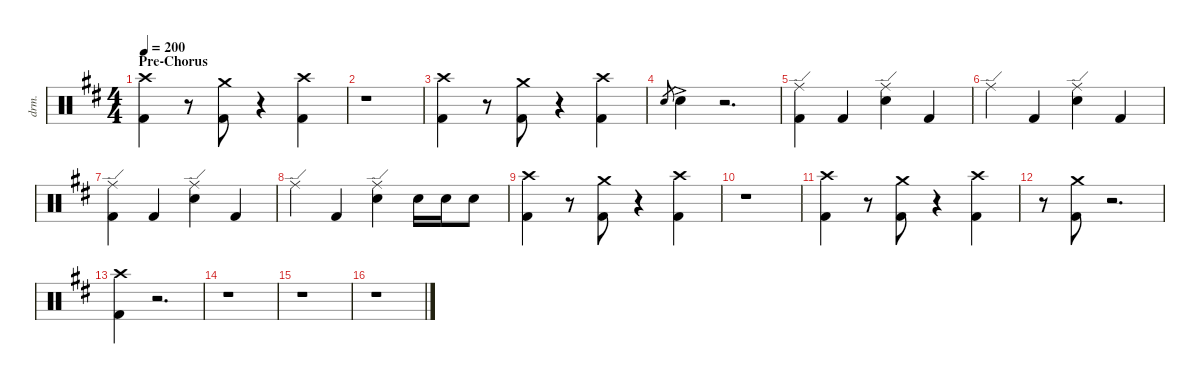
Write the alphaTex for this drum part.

\defaultSystemsLayout 4
\hideDynamics
\bracketExtendMode nobrackets
\otherSystemsTrackNameOrientation horizontal
\track ("Drums" "drm.") {instrument percussion}
\staff {score}
\articulation defaults
\ts (4 4)
\section ("" "Pre-Chorus")
\tempo 200
\clef neutral
\ks d
("Kick (hit) 2"{acc forcenatural} "Crash high (hit)"{acc #}).4{dy ff beam Down} r.8{beam Down} ("Kick (hit) 2"{acc forcenatural} "Crash medium (hit)"{acc forcenatural}).8{beam Down} r.4{beam Down} ("Kick (hit) 2"{acc forcenatural} "Crash high (hit)"{acc #}).4{beam Down} |
r.1{beam Down} |
("Kick (hit) 2"{acc forcenatural} "Crash high (hit)"{acc #}).4{beam Down} r.8{beam Down} ("Kick (hit) 2"{acc forcenatural} "Crash medium (hit)"{acc forcenatural}).8{beam Down} r.4{beam Down} ("Kick (hit) 2"{acc forcenatural} "Crash high (hit)"{acc #}).4{beam Down} |
"Snare (hit) 2"{acc forcenatural}.8{gr dy mf} "Snare (hit) 2"{ac acc forcenatural}.4{dy ff beam Down} r.2{d beam Down} |
("Kick (hit) 2"{acc forcenatural} "Ride (edge)"{acc #}).4{beam Down} "Kick (hit) 2"{acc forcenatural}.4{beam Up} ("Snare (hit) 2"{acc forcenatural} "Ride (edge)"{acc #}).4{beam Down} "Kick (hit) 2"{acc forcenatural}.4{beam Up} |
"Ride (edge)"{acc #}.4{beam Down} "Kick (hit) 2"{acc forcenatural}.4{beam Up} ("Snare (hit) 2"{acc forcenatural} "Ride (edge)"{acc #}).4{beam Down} "Kick (hit) 2"{acc forcenatural}.4{beam Up} |
("Kick (hit) 2"{acc forcenatural} "Ride (edge)"{acc #}).4{beam Down} "Kick (hit) 2"{acc forcenatural}.4{beam Up} ("Snare (hit) 2"{acc forcenatural} "Ride (edge)"{acc #}).4{beam Down} "Kick (hit) 2"{acc forcenatural}.4{beam Up} |
"Ride (edge)"{acc #}.4{beam Down} "Kick (hit) 2"{acc forcenatural}.4{beam Up} ("Snare (hit) 2"{acc forcenatural} "Ride (edge)"{acc #}).4{beam Down} "Snare (hit) 2"{acc forcenatural}.16{beam Down} "Snare (hit) 2"{acc forcenatural}.16{beam Down} "Snare (hit) 2"{acc forcenatural}.8{beam Down} |
("Kick (hit) 2"{acc forcenatural} "Crash high (hit)"{acc #}).4{beam Down} r.8{beam Down} ("Kick (hit) 2"{acc forcenatural} "Crash medium (hit)"{acc forcenatural}).8{beam Down} r.4{beam Down} ("Kick (hit) 2"{acc forcenatural} "Crash high (hit)"{acc #}).4{beam Down} |
r.1{beam Down} |
("Kick (hit) 2"{acc forcenatural} "Crash high (hit)"{acc #}).4{beam Down} r.8{beam Down} ("Kick (hit) 2"{acc forcenatural} "Crash medium (hit)"{acc forcenatural}).8{beam Down} r.4{beam Down} ("Kick (hit) 2"{acc forcenatural} "Crash high (hit)"{acc #}).4{beam Down} |
r.8{beam Down} ("Kick (hit) 2"{acc forcenatural} "Crash medium (hit)"{acc forcenatural}).8{beam Down} r.2{d beam Down} |
("Kick (hit) 2"{acc forcenatural} "Crash high (hit)"{acc #}).4{beam Down} r.2{d beam Down} |
r.1{beam Down} |
r.1{beam Down} |
r.1{beam Down}
